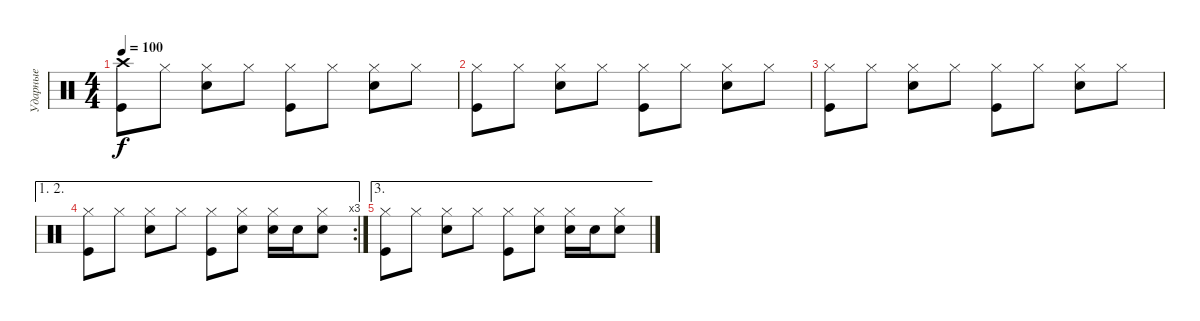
\track ("Ударные" "Ударные") {instrument percussion}
\staff {score}
\articulation defaults
\ts (4 4)
\tempo 100
\clef neutral
\ks c
("Kick (hit)" "Crash high (hit)").8{dy f} "Hi-Hat (closed)".8 ("Snare (hit) 2" "Hi-Hat (closed)").8 "Hi-Hat (closed)".8 ("Kick (hit)" "Hi-Hat (closed)").8 "Hi-Hat (closed)".8 ("Snare (hit) 2" "Hi-Hat (closed)").8 "Hi-Hat (closed)".8 |
("Kick (hit)" "Hi-Hat (closed)").8 "Hi-Hat (closed)".8 ("Snare (hit) 2" "Hi-Hat (closed)").8 "Hi-Hat (closed)".8 ("Kick (hit)" "Hi-Hat (closed)").8 "Hi-Hat (closed)".8 ("Snare (hit) 2" "Hi-Hat (closed)").8 "Hi-Hat (closed)".8 |
("Kick (hit)" "Hi-Hat (closed)").8 "Hi-Hat (closed)".8 ("Snare (hit) 2" "Hi-Hat (closed)").8 "Hi-Hat (closed)".8 ("Kick (hit)" "Hi-Hat (closed)").8 "Hi-Hat (closed)".8 ("Snare (hit) 2" "Hi-Hat (closed)").8 "Hi-Hat (closed)".8 |
\ae (1 2)
\rc 3
("Kick (hit)" "Hi-Hat (closed)").8 "Hi-Hat (closed)".8 ("Snare (hit) 2" "Hi-Hat (closed)").8 "Hi-Hat (closed)".8 ("Kick (hit)" "Hi-Hat (closed)").8 ("Snare (hit) 2" "Hi-Hat (closed)").8 ("Snare (hit) 2" "Hi-Hat (closed)").16 "Snare (hit) 2".16 ("Snare (hit) 2" "Hi-Hat (closed)").8 |
\ae 3
("Kick (hit)" "Hi-Hat (closed)").8 "Hi-Hat (closed)".8 ("Snare (hit) 2" "Hi-Hat (closed)").8 "Hi-Hat (closed)".8 ("Kick (hit)" "Hi-Hat (closed)").8 ("Snare (hit) 2" "Hi-Hat (closed)").8 ("Snare (hit) 2" "Hi-Hat (closed)").16 "Snare (hit) 2".16 ("Snare (hit) 2" "Hi-Hat (closed)").8
